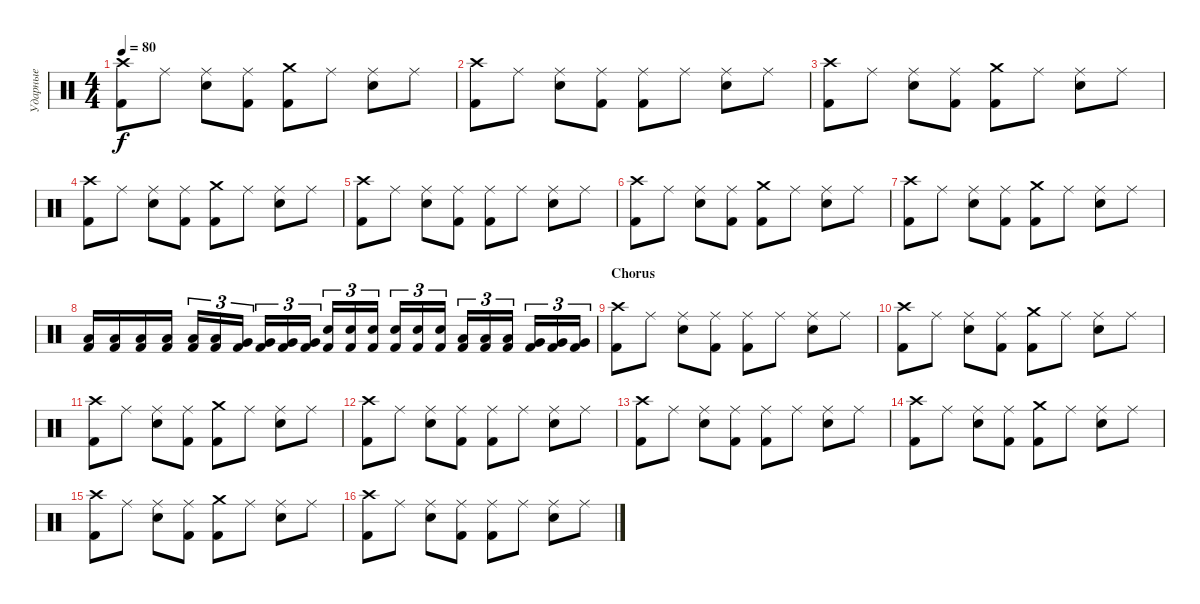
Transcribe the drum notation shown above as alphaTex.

\track ("Ударные" "Ударные") {instrument percussion}
\staff {score}
\articulation defaults
\ts (4 4)
\tempo 80
\clef neutral
\ks c
("Crash high (hit)" "Kick (hit) 2").8{dy f} "Ride (middle)".8 ("Ride (middle)" "Electric Snare (hit)").8 ("Ride (middle)" "Kick (hit) 2").8 ("Crash medium (hit)" "Kick (hit) 2").8 "Ride (middle)".8 ("Ride (middle)" "Electric Snare (hit)").8 "Ride (middle)".8 |
("Crash high (hit)" "Kick (hit) 2").8 "Ride (middle)".8 ("Ride (middle)" "Electric Snare (hit)").8 ("Ride (middle)" "Kick (hit) 2").8 ("Ride (middle)" "Kick (hit) 2").8 "Ride (middle)".8 ("Ride (middle)" "Electric Snare (hit)").8 "Ride (middle)".8 |
("Crash high (hit)" "Kick (hit) 2").8 "Ride (middle)".8 ("Ride (middle)" "Electric Snare (hit)").8 ("Ride (middle)" "Kick (hit) 2").8 ("Crash medium (hit)" "Kick (hit) 2").8 "Ride (middle)".8 ("Ride (middle)" "Electric Snare (hit)").8 "Ride (middle)".8 |
("Crash high (hit)" "Kick (hit) 2").8 "Ride (middle)".8 ("Ride (middle)" "Electric Snare (hit)").8 ("Ride (middle)" "Kick (hit) 2").8 ("Crash medium (hit)" "Kick (hit) 2").8 "Ride (middle)".8 ("Ride (middle)" "Electric Snare (hit)").8 "Ride (middle)".8 |
("Crash high (hit)" "Kick (hit) 2").8 "Ride (middle)".8 ("Ride (middle)" "Electric Snare (hit)").8 ("Ride (middle)" "Kick (hit) 2").8 ("Ride (middle)" "Kick (hit) 2").8 "Ride (middle)".8 ("Ride (middle)" "Electric Snare (hit)").8 "Ride (middle)".8 |
("Crash high (hit)" "Kick (hit) 2").8 "Ride (middle)".8 ("Ride (middle)" "Electric Snare (hit)").8 ("Ride (middle)" "Kick (hit) 2").8 ("Crash medium (hit)" "Kick (hit) 2").8 "Ride (middle)".8 ("Ride (middle)" "Electric Snare (hit)").8 "Ride (middle)".8 |
("Crash high (hit)" "Kick (hit) 2").8 "Ride (middle)".8 ("Ride (middle)" "Electric Snare (hit)").8 ("Ride (middle)" "Kick (hit) 2").8 ("Crash medium (hit)" "Kick (hit) 2").8 "Ride (middle)".8 ("Ride (middle)" "Electric Snare (hit)").8 "Ride (middle)".8 |
("Low Floor Tom (hit)" "Kick (hit) 2").16 ("Low Floor Tom (hit)" "Kick (hit) 2").16 ("Low Floor Tom (hit)" "Kick (hit) 2").16 ("Low Floor Tom (hit)" "Kick (hit) 2").16 ("Low Tom (hit)" "Kick (hit) 2").16{tu (3 2)} ("Low Tom (hit)" "Kick (hit) 2").16{tu (3 2)} ("Very Low Tom (hit)" "Kick (hit) 2").16{tu (3 2)} ("Very Low Tom (hit)" "Kick (hit) 2").16{tu (3 2)} ("Very Low Tom (hit)" "Kick (hit) 2").16{tu (3 2)} ("Very Low Tom (hit)" "Kick (hit) 2").16{tu (3 2)} ("Electric Snare (hit)" "Kick (hit) 2").16{tu (3 2)} ("Electric Snare (hit)" "Kick (hit) 2").16{tu (3 2)} ("Electric Snare (hit)" "Kick (hit) 2").16{tu (3 2)} ("Electric Snare (hit)" "Kick (hit) 2").16{tu (3 2)} ("Electric Snare (hit)" "Kick (hit) 2").16{tu (3 2)} ("Electric Snare (hit)" "Kick (hit) 2").16{tu (3 2)} ("Low Tom (hit)" "Kick (hit) 2").16{tu (3 2)} ("Low Tom (hit)" "Kick (hit) 2").16{tu (3 2)} ("Low Tom (hit)" "Kick (hit) 2").16{tu (3 2)} ("Very Low Tom (hit)" "Kick (hit) 2").16{tu (3 2)} ("Very Low Tom (hit)" "Kick (hit) 2").16{tu (3 2)} ("Very Low Tom (hit)" "Kick (hit) 2").16{tu (3 2)} |
\section ("" "Chorus")
("Crash high (hit)" "Kick (hit) 2").8 "Ride (middle)".8 ("Ride (middle)" "Electric Snare (hit)").8 ("Ride (middle)" "Kick (hit) 2").8 ("Ride (middle)" "Kick (hit) 2").8 "Ride (middle)".8 ("Ride (middle)" "Electric Snare (hit)").8 "Ride (middle)".8 |
("Crash high (hit)" "Kick (hit) 2").8 "Ride (middle)".8 ("Ride (middle)" "Electric Snare (hit)").8 ("Ride (middle)" "Kick (hit) 2").8 ("Crash medium (hit)" "Kick (hit) 2").8 "Ride (middle)".8 ("Ride (middle)" "Electric Snare (hit)").8 "Ride (middle)".8 |
("Crash high (hit)" "Kick (hit) 2").8 "Ride (middle)".8 ("Ride (middle)" "Electric Snare (hit)").8 ("Ride (middle)" "Kick (hit) 2").8 ("Crash medium (hit)" "Kick (hit) 2").8 "Ride (middle)".8 ("Ride (middle)" "Electric Snare (hit)").8 "Ride (middle)".8 |
("Crash high (hit)" "Kick (hit) 2").8 "Ride (middle)".8 ("Ride (middle)" "Electric Snare (hit)").8 ("Ride (middle)" "Kick (hit) 2").8 ("Ride (middle)" "Kick (hit) 2").8 "Ride (middle)".8 ("Ride (middle)" "Electric Snare (hit)").8 "Ride (middle)".8 |
("Crash high (hit)" "Kick (hit) 2").8 "Ride (middle)".8 ("Ride (middle)" "Electric Snare (hit)").8 ("Ride (middle)" "Kick (hit) 2").8 ("Ride (middle)" "Kick (hit) 2").8 "Ride (middle)".8 ("Ride (middle)" "Electric Snare (hit)").8 "Ride (middle)".8 |
("Crash high (hit)" "Kick (hit) 2").8 "Ride (middle)".8 ("Ride (middle)" "Electric Snare (hit)").8 ("Ride (middle)" "Kick (hit) 2").8 ("Crash medium (hit)" "Kick (hit) 2").8 "Ride (middle)".8 ("Ride (middle)" "Electric Snare (hit)").8 "Ride (middle)".8 |
("Crash high (hit)" "Kick (hit) 2").8 "Ride (middle)".8 ("Ride (middle)" "Electric Snare (hit)").8 ("Ride (middle)" "Kick (hit) 2").8 ("Crash medium (hit)" "Kick (hit) 2").8 "Ride (middle)".8 ("Ride (middle)" "Electric Snare (hit)").8 "Ride (middle)".8 |
("Crash high (hit)" "Kick (hit) 2").8 "Ride (middle)".8 ("Ride (middle)" "Electric Snare (hit)").8 ("Ride (middle)" "Kick (hit) 2").8 ("Ride (middle)" "Kick (hit) 2").8 "Ride (middle)".8 ("Ride (middle)" "Electric Snare (hit)").8 "Ride (middle)".8
